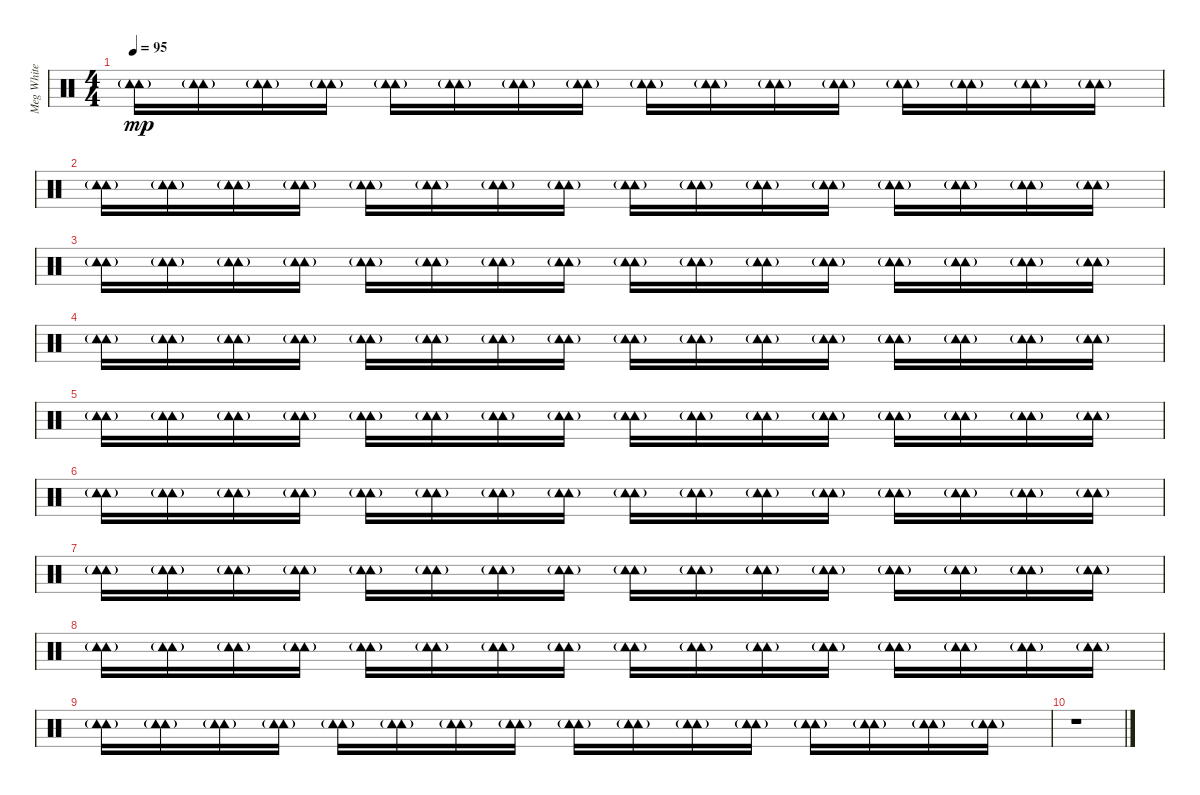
\track ("Meg White - Purcussions" "Meg White ") {instrument percussion}
\staff {score}
\articulation defaults
\ts (4 4)
\tempo 95
\clef neutral
\ks c
("Tambourine (hit)"{g} "Tambourine (hit)"{g}).16{dy mp} ("Tambourine (hit)"{g} "Tambourine (hit)"{g}).16 ("Tambourine (hit)"{g} "Tambourine (hit)"{g}).16 ("Tambourine (hit)"{g} "Tambourine (hit)"{g}).16 ("Tambourine (hit)"{g} "Tambourine (hit)"{g}).16 ("Tambourine (hit)"{g} "Tambourine (hit)"{g}).16 ("Tambourine (hit)"{g} "Tambourine (hit)"{g}).16 ("Tambourine (hit)"{g} "Tambourine (hit)"{g}).16 ("Tambourine (hit)"{g} "Tambourine (hit)"{g}).16 ("Tambourine (hit)"{g} "Tambourine (hit)"{g}).16 ("Tambourine (hit)"{g} "Tambourine (hit)"{g}).16 ("Tambourine (hit)"{g} "Tambourine (hit)"{g}).16 ("Tambourine (hit)"{g} "Tambourine (hit)"{g}).16 ("Tambourine (hit)"{g} "Tambourine (hit)"{g}).16 ("Tambourine (hit)"{g} "Tambourine (hit)"{g}).16 ("Tambourine (hit)"{g} "Tambourine (hit)"{g}).16 |
("Tambourine (hit)"{g} "Tambourine (hit)"{g}).16 ("Tambourine (hit)"{g} "Tambourine (hit)"{g}).16 ("Tambourine (hit)"{g} "Tambourine (hit)"{g}).16 ("Tambourine (hit)"{g} "Tambourine (hit)"{g}).16 ("Tambourine (hit)"{g} "Tambourine (hit)"{g}).16 ("Tambourine (hit)"{g} "Tambourine (hit)"{g}).16 ("Tambourine (hit)"{g} "Tambourine (hit)"{g}).16 ("Tambourine (hit)"{g} "Tambourine (hit)"{g}).16 ("Tambourine (hit)"{g} "Tambourine (hit)"{g}).16 ("Tambourine (hit)"{g} "Tambourine (hit)"{g}).16 ("Tambourine (hit)"{g} "Tambourine (hit)"{g}).16 ("Tambourine (hit)"{g} "Tambourine (hit)"{g}).16 ("Tambourine (hit)"{g} "Tambourine (hit)"{g}).16 ("Tambourine (hit)"{g} "Tambourine (hit)"{g}).16 ("Tambourine (hit)"{g} "Tambourine (hit)"{g}).16 ("Tambourine (hit)"{g} "Tambourine (hit)"{g}).16 |
("Tambourine (hit)"{g} "Tambourine (hit)"{g}).16 ("Tambourine (hit)"{g} "Tambourine (hit)"{g}).16 ("Tambourine (hit)"{g} "Tambourine (hit)"{g}).16 ("Tambourine (hit)"{g} "Tambourine (hit)"{g}).16 ("Tambourine (hit)"{g} "Tambourine (hit)"{g}).16 ("Tambourine (hit)"{g} "Tambourine (hit)"{g}).16 ("Tambourine (hit)"{g} "Tambourine (hit)"{g}).16 ("Tambourine (hit)"{g} "Tambourine (hit)"{g}).16 ("Tambourine (hit)"{g} "Tambourine (hit)"{g}).16 ("Tambourine (hit)"{g} "Tambourine (hit)"{g}).16 ("Tambourine (hit)"{g} "Tambourine (hit)"{g}).16 ("Tambourine (hit)"{g} "Tambourine (hit)"{g}).16 ("Tambourine (hit)"{g} "Tambourine (hit)"{g}).16 ("Tambourine (hit)"{g} "Tambourine (hit)"{g}).16 ("Tambourine (hit)"{g} "Tambourine (hit)"{g}).16 ("Tambourine (hit)"{g} "Tambourine (hit)"{g}).16 |
("Tambourine (hit)"{g} "Tambourine (hit)"{g}).16 ("Tambourine (hit)"{g} "Tambourine (hit)"{g}).16 ("Tambourine (hit)"{g} "Tambourine (hit)"{g}).16 ("Tambourine (hit)"{g} "Tambourine (hit)"{g}).16 ("Tambourine (hit)"{g} "Tambourine (hit)"{g}).16 ("Tambourine (hit)"{g} "Tambourine (hit)"{g}).16 ("Tambourine (hit)"{g} "Tambourine (hit)"{g}).16 ("Tambourine (hit)"{g} "Tambourine (hit)"{g}).16 ("Tambourine (hit)"{g} "Tambourine (hit)"{g}).16 ("Tambourine (hit)"{g} "Tambourine (hit)"{g}).16 ("Tambourine (hit)"{g} "Tambourine (hit)"{g}).16 ("Tambourine (hit)"{g} "Tambourine (hit)"{g}).16 ("Tambourine (hit)"{g} "Tambourine (hit)"{g}).16 ("Tambourine (hit)"{g} "Tambourine (hit)"{g}).16 ("Tambourine (hit)"{g} "Tambourine (hit)"{g}).16 ("Tambourine (hit)"{g} "Tambourine (hit)"{g}).16 |
("Tambourine (hit)"{g} "Tambourine (hit)"{g}).16 ("Tambourine (hit)"{g} "Tambourine (hit)"{g}).16 ("Tambourine (hit)"{g} "Tambourine (hit)"{g}).16 ("Tambourine (hit)"{g} "Tambourine (hit)"{g}).16 ("Tambourine (hit)"{g} "Tambourine (hit)"{g}).16 ("Tambourine (hit)"{g} "Tambourine (hit)"{g}).16 ("Tambourine (hit)"{g} "Tambourine (hit)"{g}).16 ("Tambourine (hit)"{g} "Tambourine (hit)"{g}).16 ("Tambourine (hit)"{g} "Tambourine (hit)"{g}).16 ("Tambourine (hit)"{g} "Tambourine (hit)"{g}).16 ("Tambourine (hit)"{g} "Tambourine (hit)"{g}).16 ("Tambourine (hit)"{g} "Tambourine (hit)"{g}).16 ("Tambourine (hit)"{g} "Tambourine (hit)"{g}).16 ("Tambourine (hit)"{g} "Tambourine (hit)"{g}).16 ("Tambourine (hit)"{g} "Tambourine (hit)"{g}).16 ("Tambourine (hit)"{g} "Tambourine (hit)"{g}).16 |
("Tambourine (hit)"{g} "Tambourine (hit)"{g}).16 ("Tambourine (hit)"{g} "Tambourine (hit)"{g}).16 ("Tambourine (hit)"{g} "Tambourine (hit)"{g}).16 ("Tambourine (hit)"{g} "Tambourine (hit)"{g}).16 ("Tambourine (hit)"{g} "Tambourine (hit)"{g}).16 ("Tambourine (hit)"{g} "Tambourine (hit)"{g}).16 ("Tambourine (hit)"{g} "Tambourine (hit)"{g}).16 ("Tambourine (hit)"{g} "Tambourine (hit)"{g}).16 ("Tambourine (hit)"{g} "Tambourine (hit)"{g}).16 ("Tambourine (hit)"{g} "Tambourine (hit)"{g}).16 ("Tambourine (hit)"{g} "Tambourine (hit)"{g}).16 ("Tambourine (hit)"{g} "Tambourine (hit)"{g}).16 ("Tambourine (hit)"{g} "Tambourine (hit)"{g}).16 ("Tambourine (hit)"{g} "Tambourine (hit)"{g}).16 ("Tambourine (hit)"{g} "Tambourine (hit)"{g}).16 ("Tambourine (hit)"{g} "Tambourine (hit)"{g}).16 |
("Tambourine (hit)"{g} "Tambourine (hit)"{g}).16 ("Tambourine (hit)"{g} "Tambourine (hit)"{g}).16 ("Tambourine (hit)"{g} "Tambourine (hit)"{g}).16 ("Tambourine (hit)"{g} "Tambourine (hit)"{g}).16 ("Tambourine (hit)"{g} "Tambourine (hit)"{g}).16 ("Tambourine (hit)"{g} "Tambourine (hit)"{g}).16 ("Tambourine (hit)"{g} "Tambourine (hit)"{g}).16 ("Tambourine (hit)"{g} "Tambourine (hit)"{g}).16 ("Tambourine (hit)"{g} "Tambourine (hit)"{g}).16 ("Tambourine (hit)"{g} "Tambourine (hit)"{g}).16 ("Tambourine (hit)"{g} "Tambourine (hit)"{g}).16 ("Tambourine (hit)"{g} "Tambourine (hit)"{g}).16 ("Tambourine (hit)"{g} "Tambourine (hit)"{g}).16 ("Tambourine (hit)"{g} "Tambourine (hit)"{g}).16 ("Tambourine (hit)"{g} "Tambourine (hit)"{g}).16 ("Tambourine (hit)"{g} "Tambourine (hit)"{g}).16 |
("Tambourine (hit)"{g} "Tambourine (hit)"{g}).16 ("Tambourine (hit)"{g} "Tambourine (hit)"{g}).16 ("Tambourine (hit)"{g} "Tambourine (hit)"{g}).16 ("Tambourine (hit)"{g} "Tambourine (hit)"{g}).16 ("Tambourine (hit)"{g} "Tambourine (hit)"{g}).16 ("Tambourine (hit)"{g} "Tambourine (hit)"{g}).16 ("Tambourine (hit)"{g} "Tambourine (hit)"{g}).16 ("Tambourine (hit)"{g} "Tambourine (hit)"{g}).16 ("Tambourine (hit)"{g} "Tambourine (hit)"{g}).16 ("Tambourine (hit)"{g} "Tambourine (hit)"{g}).16 ("Tambourine (hit)"{g} "Tambourine (hit)"{g}).16 ("Tambourine (hit)"{g} "Tambourine (hit)"{g}).16 ("Tambourine (hit)"{g} "Tambourine (hit)"{g}).16 ("Tambourine (hit)"{g} "Tambourine (hit)"{g}).16 ("Tambourine (hit)"{g} "Tambourine (hit)"{g}).16 ("Tambourine (hit)"{g} "Tambourine (hit)"{g}).16 |
("Tambourine (hit)"{g} "Tambourine (hit)"{g}).16 ("Tambourine (hit)"{g} "Tambourine (hit)"{g}).16 ("Tambourine (hit)"{g} "Tambourine (hit)"{g}).16 ("Tambourine (hit)"{g} "Tambourine (hit)"{g}).16 ("Tambourine (hit)"{g} "Tambourine (hit)"{g}).16 ("Tambourine (hit)"{g} "Tambourine (hit)"{g}).16 ("Tambourine (hit)"{g} "Tambourine (hit)"{g}).16 ("Tambourine (hit)"{g} "Tambourine (hit)"{g}).16 ("Tambourine (hit)"{g} "Tambourine (hit)"{g}).16 ("Tambourine (hit)"{g} "Tambourine (hit)"{g}).16 ("Tambourine (hit)"{g} "Tambourine (hit)"{g}).16 ("Tambourine (hit)"{g} "Tambourine (hit)"{g}).16 ("Tambourine (hit)"{g} "Tambourine (hit)"{g}).16 ("Tambourine (hit)"{g} "Tambourine (hit)"{g}).16 ("Tambourine (hit)"{g} "Tambourine (hit)"{g}).16 ("Tambourine (hit)"{g} "Tambourine (hit)"{g}).16 |
r.1
